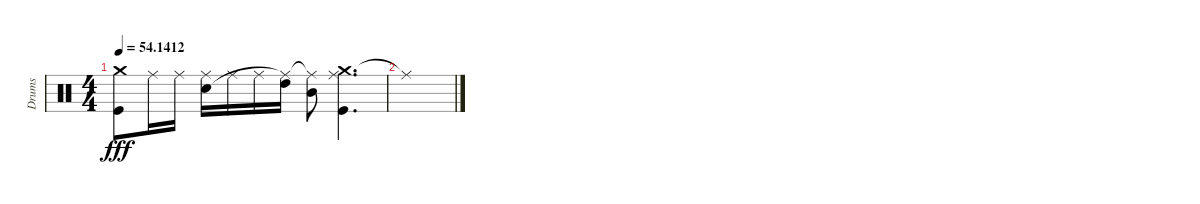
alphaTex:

\track ("Drums" "Drums") {instrument percussion}
\staff {score}
\articulation defaults
\ts (4 4)
\tempo
54.1412
\accidentals auto
\clef neutral
\ottava regular
\simile none
\ks c
("Crash medium (hit)" "Kick (hit)").8{dy fff} "Ride (middle)".16 "Ride (middle)".16 ("Ride (middle)" "Snare (hit) 2").16 "Ride (middle)".16 "Ride (middle)".16 ("High Tom (hit)" "Ride (middle)"{t}).16 ("Mid Tom (hit)" "Ride (middle)"{t}).8 ("Crash medium (hit)" "Kick (hit)" "Ride (middle)").4{d} |
"Ride (middle)"{t}.1
